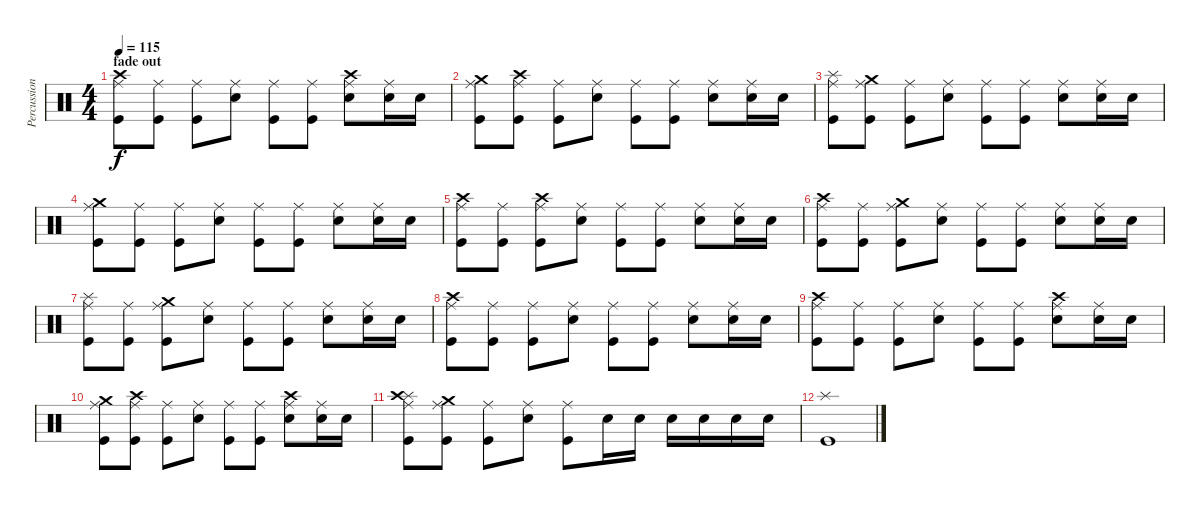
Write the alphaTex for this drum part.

\track ("Percussions" "Percussion") {instrument percussion}
\staff {score}
\articulation defaults
\ts (4 4)
\section ("" "fade out")
\tempo 115
\clef neutral
\ks c
("Ride (middle)" "Crash high (hit)" "Kick (hit)").8{dy f} ("Ride (middle)" "Kick (hit)").8 ("Ride (middle)" "Kick (hit)").8 ("Ride (middle)" "Electric Snare (hit)").8 ("Ride (middle)" "Kick (hit)").8 ("Ride (middle)" "Kick (hit)").8 ("Ride (middle)" "Crash high (hit)" "Electric Snare (hit)").8 ("Ride (middle)" "Electric Snare (hit)").16 "Electric Snare (hit)".16 |
("Ride (middle)" "Crash medium (hit)" "Kick (hit)").8 ("Ride (middle)" "Crash high (hit)" "Kick (hit)").8 ("Ride (middle)" "Kick (hit)").8 ("Ride (middle)" "Electric Snare (hit)").8 ("Ride (middle)" "Kick (hit)").8 ("Ride (middle)" "Kick (hit)").8 ("Ride (middle)" "Electric Snare (hit)").8 ("Ride (middle)" "Electric Snare (hit)").16 "Electric Snare (hit)".16 |
("Ride (middle)" "Splash (hit)" "Kick (hit)").8 ("Ride (middle)" "Crash medium (hit)" "Kick (hit)").8 ("Ride (middle)" "Kick (hit)").8 ("Ride (middle)" "Electric Snare (hit)").8 ("Ride (middle)" "Kick (hit)").8 ("Ride (middle)" "Kick (hit)").8 ("Ride (middle)" "Electric Snare (hit)").8 ("Ride (middle)" "Electric Snare (hit)").16 "Electric Snare (hit)".16 |
("Ride (middle)" "Crash medium (hit)" "Kick (hit)").8 ("Ride (middle)" "Kick (hit)").8 ("Ride (middle)" "Kick (hit)").8 ("Ride (middle)" "Electric Snare (hit)").8 ("Ride (middle)" "Kick (hit)").8 ("Ride (middle)" "Kick (hit)").8 ("Ride (middle)" "Electric Snare (hit)").8 ("Ride (middle)" "Electric Snare (hit)").16 "Electric Snare (hit)".16 |
("Ride (middle)" "Crash high (hit)" "Kick (hit)").8 ("Ride (middle)" "Kick (hit)").8 ("Ride (middle)" "Crash high (hit)" "Kick (hit)").8 ("Ride (middle)" "Electric Snare (hit)").8 ("Ride (middle)" "Kick (hit)").8 ("Ride (middle)" "Kick (hit)").8 ("Ride (middle)" "Electric Snare (hit)").8 ("Ride (middle)" "Electric Snare (hit)").16 "Electric Snare (hit)".16 |
("Ride (middle)" "Crash high (hit)" "Kick (hit)").8 ("Ride (middle)" "Kick (hit)").8 ("Ride (middle)" "Crash medium (hit)" "Kick (hit)").8 ("Ride (middle)" "Electric Snare (hit)").8 ("Ride (middle)" "Kick (hit)").8 ("Ride (middle)" "Kick (hit)").8 ("Ride (middle)" "Electric Snare (hit)").8 ("Ride (middle)" "Electric Snare (hit)").16 "Electric Snare (hit)".16 |
("Ride (middle)" "Splash (hit)" "Kick (hit)").8 ("Ride (middle)" "Kick (hit)").8 ("Ride (middle)" "Crash medium (hit)" "Kick (hit)").8 ("Ride (middle)" "Electric Snare (hit)").8 ("Ride (middle)" "Kick (hit)").8 ("Ride (middle)" "Kick (hit)").8 ("Ride (middle)" "Electric Snare (hit)").8 ("Ride (middle)" "Electric Snare (hit)").16 "Electric Snare (hit)".16 |
("Ride (middle)" "Crash high (hit)" "Kick (hit)").8 ("Ride (middle)" "Kick (hit)").8 ("Ride (middle)" "Kick (hit)").8 ("Ride (middle)" "Electric Snare (hit)").8 ("Ride (middle)" "Kick (hit)").8 ("Ride (middle)" "Kick (hit)").8 ("Ride (middle)" "Electric Snare (hit)").8 ("Ride (middle)" "Electric Snare (hit)").16 "Electric Snare (hit)".16 |
("Ride (middle)" "Crash high (hit)" "Kick (hit)").8 ("Ride (middle)" "Kick (hit)").8 ("Ride (middle)" "Kick (hit)").8 ("Ride (middle)" "Electric Snare (hit)").8 ("Ride (middle)" "Kick (hit)").8 ("Ride (middle)" "Kick (hit)").8 ("Ride (middle)" "Crash high (hit)" "Electric Snare (hit)").8 ("Ride (middle)" "Electric Snare (hit)").16 "Electric Snare (hit)".16 |
("Ride (middle)" "Crash medium (hit)" "Kick (hit)").8 ("Ride (middle)" "Crash high (hit)" "Kick (hit)").8 ("Ride (middle)" "Kick (hit)").8 ("Ride (middle)" "Electric Snare (hit)").8 ("Ride (middle)" "Kick (hit)").8 ("Ride (middle)" "Kick (hit)").8 ("Ride (middle)" "Crash high (hit)" "Electric Snare (hit)").8 ("Ride (middle)" "Electric Snare (hit)").16 "Electric Snare (hit)".16 |
("Ride (middle)" "Splash (hit)" "Crash high (hit)" "Kick (hit)").8 ("Ride (middle)" "Crash medium (hit)" "Kick (hit)").8 ("Ride (middle)" "Kick (hit)").8 ("Ride (middle)" "Electric Snare (hit)").8 ("Ride (middle)" "Kick (hit)").8 "Electric Snare (hit)".16 "Electric Snare (hit)".16 "Electric Snare (hit)".16 "Electric Snare (hit)".16 "Electric Snare (hit)".16 "Electric Snare (hit)".16 |
("Splash (hit)" "Kick (hit)").1
